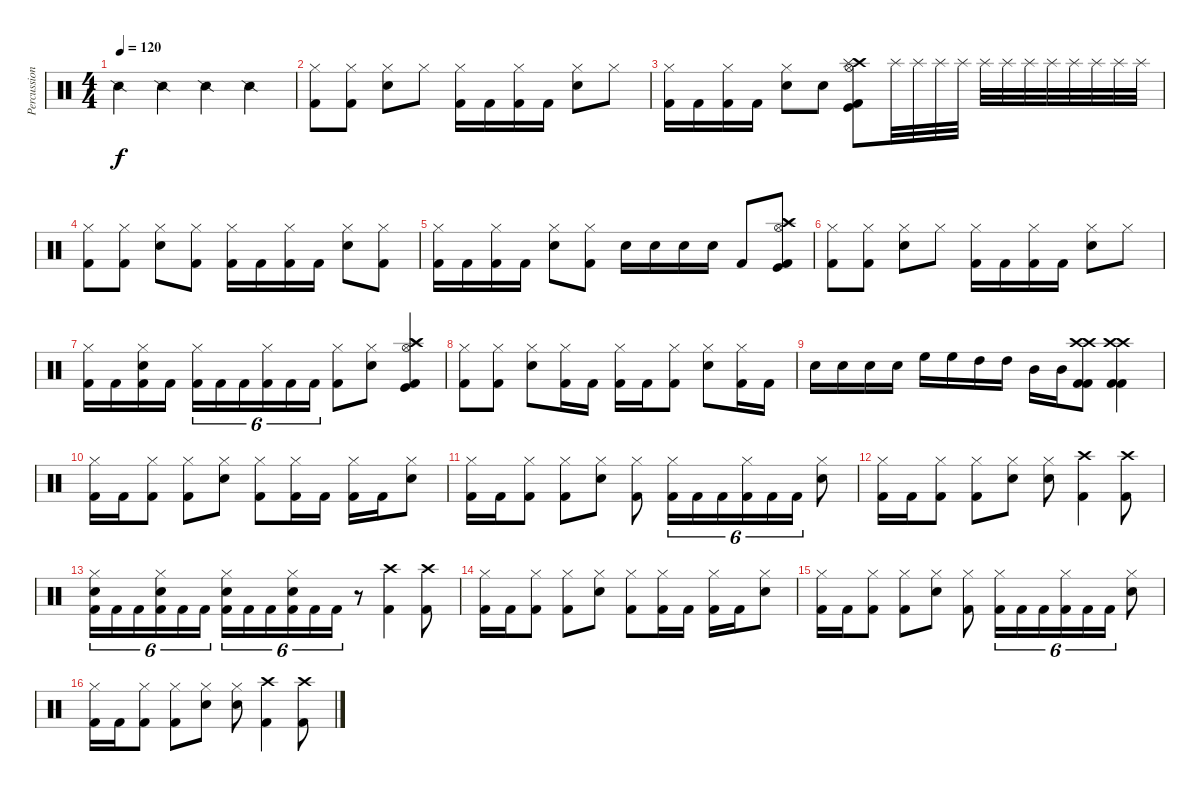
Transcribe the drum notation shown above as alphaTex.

\track ("Percussioni" "Percussion") {instrument percussion}
\staff {score}
\articulation defaults
\ts (4 4)
\tempo 120
\clef neutral
\ks c "Snare (side stick) 2".4{dy f} "Snare (side stick) 2".4 "Snare (side stick) 2".4 "Snare (side stick) 2".4
|
("Hi-Hat (closed)" "Kick (hit) 2").8 ("Hi-Hat (closed)" "Kick (hit) 2").8 ("Hi-Hat (closed)" "Snare (hit) 2").8 "Hi-Hat (closed)".8 ("Hi-Hat (closed)" "Kick (hit) 2").16 "Kick (hit) 2".16 ("Hi-Hat (closed)" "Kick (hit) 2").16 "Kick (hit) 2".16 ("Hi-Hat (closed)" "Snare (hit) 2").8 "Hi-Hat (closed)".8 |
("Hi-Hat (closed)" "Kick (hit) 2").16 "Kick (hit) 2".16 ("Hi-Hat (closed)" "Kick (hit) 2").16 "Kick (hit) 2".16 ("Hi-Hat (closed)" "Snare (hit) 2").8 "Snare (hit) 2".8 ("Crash high (hit)" "Splash (hit)" "Hi-Hat (open)" "Kick (hit) 2" "Kick (hit)").8 "Splash (hit)".32 "Splash (hit)".32 "Splash (hit)".32 "Splash (hit)".32 "Splash (hit)".32 "Splash (hit)".32 "Splash (hit)".32 "Splash (hit)".32 "Splash (hit)".32 "Splash (hit)".32 "Splash (hit)".32 "Splash (hit)".32 |
("Hi-Hat (closed)" "Kick (hit) 2").8 ("Hi-Hat (closed)" "Kick (hit) 2").8 ("Hi-Hat (closed)" "Snare (hit) 2").8 ("Hi-Hat (closed)" "Kick (hit) 2").8 ("Hi-Hat (closed)" "Kick (hit) 2").16 "Kick (hit) 2".16 ("Hi-Hat (closed)" "Kick (hit) 2").16 "Kick (hit) 2".16 ("Hi-Hat (closed)" "Snare (hit) 2").8 ("Hi-Hat (closed)" "Kick (hit) 2").8 |
("Hi-Hat (closed)" "Kick (hit) 2").16 "Kick (hit) 2".16 ("Hi-Hat (closed)" "Kick (hit) 2").16 "Kick (hit) 2".16 ("Hi-Hat (closed)" "Snare (hit) 2").8 ("Hi-Hat (closed)" "Kick (hit) 2").8 "Snare (hit) 2".16 "Snare (hit) 2".16 "Snare (hit) 2".16 "Snare (hit) 2".16 "Kick (hit) 2".8 ("Crash high (hit)" "Splash (hit)" "Hi-Hat (open)" "Kick (hit)" "Kick (hit) 2").8 |
("Hi-Hat (closed)" "Kick (hit) 2").8 ("Hi-Hat (closed)" "Kick (hit) 2").8 ("Hi-Hat (closed)" "Snare (hit) 2").8 "Hi-Hat (closed)".8 ("Hi-Hat (closed)" "Kick (hit) 2").16 "Kick (hit) 2".16 ("Hi-Hat (closed)" "Kick (hit) 2").16 "Kick (hit) 2".16 ("Hi-Hat (closed)" "Snare (hit) 2").8 "Hi-Hat (closed)".8 |
("Hi-Hat (closed)" "Kick (hit) 2").16 "Kick (hit) 2".16 ("Hi-Hat (closed)" "Snare (hit) 2" "Kick (hit) 2").16 "Kick (hit) 2".16 ("Hi-Hat (closed)" "Kick (hit) 2").16{tu (6 4)} "Kick (hit) 2".16{tu (6 4)} "Kick (hit) 2".16{tu (6 4)} ("Hi-Hat (closed)" "Kick (hit) 2").16{tu (6 4)} "Kick (hit) 2".16{tu (6 4)} "Kick (hit) 2".16{tu (6 4)} ("Hi-Hat (closed)" "Kick (hit) 2").8 ("Hi-Hat (closed)" "Snare (hit) 2").8 ("Crash high (hit)" "Splash (hit)" "Hi-Hat (open)" "Kick (hit) 2" "Kick (hit)").4 |
("Hi-Hat (closed)" "Kick (hit) 2").8 ("Hi-Hat (closed)" "Kick (hit) 2").8 ("Hi-Hat (closed)" "Snare (hit) 2").8 ("Hi-Hat (closed)" "Kick (hit) 2").16 "Kick (hit) 2".16 ("Hi-Hat (closed)" "Kick (hit) 2").16 "Kick (hit) 2".16 ("Hi-Hat (closed)" "Kick (hit) 2").8 ("Hi-Hat (closed)" "Snare (hit) 2").8 ("Hi-Hat (closed)" "Kick (hit) 2").16 "Kick (hit) 2".16 |
"Snare (hit) 2".16 "Snare (hit) 2".16 "Snare (hit) 2".16 "Snare (hit) 2".16 "High Floor Tom (hit)".16 "High Floor Tom (hit)".16 "High Tom (hit)".16 "High Tom (hit)".16 "Mid Tom (hit)".16 "Mid Tom (hit)".16 ("Crash high (hit)" "Crash high (hit)" "Kick (hit) 2" "Kick (hit) 2").8 ("Crash high (hit)" "Crash high (hit)" "Kick (hit) 2" "Kick (hit) 2").4 |
("Hi-Hat (closed)" "Kick (hit) 2").16 "Kick (hit) 2".16 ("Hi-Hat (closed)" "Kick (hit) 2").8 ("Hi-Hat (closed)" "Kick (hit) 2").8 ("Hi-Hat (closed)" "Snare (hit) 2").8 ("Hi-Hat (closed)" "Kick (hit) 2").8 ("Hi-Hat (closed)" "Kick (hit) 2").16 "Kick (hit) 2".16 ("Hi-Hat (closed)" "Kick (hit) 2").16 "Kick (hit) 2".16 ("Hi-Hat (closed)" "Snare (hit) 2").8 |
("Hi-Hat (closed)" "Kick (hit) 2").16 "Kick (hit) 2".16 ("Hi-Hat (closed)" "Kick (hit) 2").8 ("Hi-Hat (closed)" "Kick (hit) 2").8 ("Hi-Hat (closed)" "Snare (hit) 2").8 ("Hi-Hat (closed)" "Kick (hit) 2").8 ("Hi-Hat (closed)" "Kick (hit) 2").16{tu (6 4)} "Kick (hit) 2".16{tu (6 4)} "Kick (hit) 2".16{tu (6 4)} ("Hi-Hat (closed)" "Kick (hit) 2").16{tu (6 4)} "Kick (hit) 2".16{tu (6 4)} "Kick (hit) 2".16{tu (6 4)} ("Hi-Hat (closed)" "Snare (hit) 2").8 |
("Hi-Hat (closed)" "Kick (hit) 2").16 "Kick (hit) 2".16 ("Hi-Hat (closed)" "Kick (hit) 2").8 ("Hi-Hat (closed)" "Kick (hit) 2").8 ("Hi-Hat (closed)" "Snare (hit) 2").8 ("Hi-Hat (closed)" "Snare (hit) 2").8 ("Crash high (hit)" "Kick (hit) 2").4 ("Crash high (hit)" "Kick (hit) 2").8 |
("Hi-Hat (closed)" "Snare (hit) 2" "Kick (hit) 2").16{tu (6 4)} "Kick (hit) 2".16{tu (6 4)} "Kick (hit) 2".16{tu (6 4)} ("Hi-Hat (closed)" "Snare (hit) 2" "Kick (hit) 2").16{tu (6 4)} "Kick (hit) 2".16{tu (6 4)} "Kick (hit) 2".16{tu (6 4)} ("Hi-Hat (closed)" "Snare (hit) 2" "Kick (hit) 2").16{tu (6 4)} "Kick (hit) 2".16{tu (6 4)} "Kick (hit) 2".16{tu (6 4)} ("Hi-Hat (closed)" "Snare (hit) 2" "Kick (hit) 2").16{tu (6 4)} "Kick (hit) 2".16{tu (6 4)} "Kick (hit) 2".16{tu (6 4)} r.8 ("Crash high (hit)" "Kick (hit) 2").4 ("Crash high (hit)" "Kick (hit) 2").8 |
("Hi-Hat (closed)" "Kick (hit) 2").16 "Kick (hit) 2".16 ("Hi-Hat (closed)" "Kick (hit) 2").8 ("Hi-Hat (closed)" "Kick (hit) 2").8 ("Hi-Hat (closed)" "Snare (hit) 2").8 ("Hi-Hat (closed)" "Kick (hit) 2").8 ("Hi-Hat (closed)" "Kick (hit) 2").16 "Kick (hit) 2".16 ("Hi-Hat (closed)" "Kick (hit) 2").16 "Kick (hit) 2".16 ("Hi-Hat (closed)" "Snare (hit) 2").8 |
("Hi-Hat (closed)" "Kick (hit) 2").16 "Kick (hit) 2".16 ("Hi-Hat (closed)" "Kick (hit) 2").8 ("Hi-Hat (closed)" "Kick (hit) 2").8 ("Hi-Hat (closed)" "Snare (hit) 2").8 ("Hi-Hat (closed)" "Kick (hit) 2").8 ("Hi-Hat (closed)" "Kick (hit) 2").16{tu (6 4)} "Kick (hit) 2".16{tu (6 4)} "Kick (hit) 2".16{tu (6 4)} ("Hi-Hat (closed)" "Kick (hit) 2").16{tu (6 4)} "Kick (hit) 2".16{tu (6 4)} "Kick (hit) 2".16{tu (6 4)} ("Hi-Hat (closed)" "Snare (hit) 2").8 |
("Hi-Hat (closed)" "Kick (hit) 2").16 "Kick (hit) 2".16 ("Hi-Hat (closed)" "Kick (hit) 2").8 ("Hi-Hat (closed)" "Kick (hit) 2").8 ("Hi-Hat (closed)" "Snare (hit) 2").8 ("Hi-Hat (closed)" "Snare (hit) 2").8 ("Crash high (hit)" "Kick (hit) 2").4 ("Crash high (hit)" "Kick (hit) 2").8
